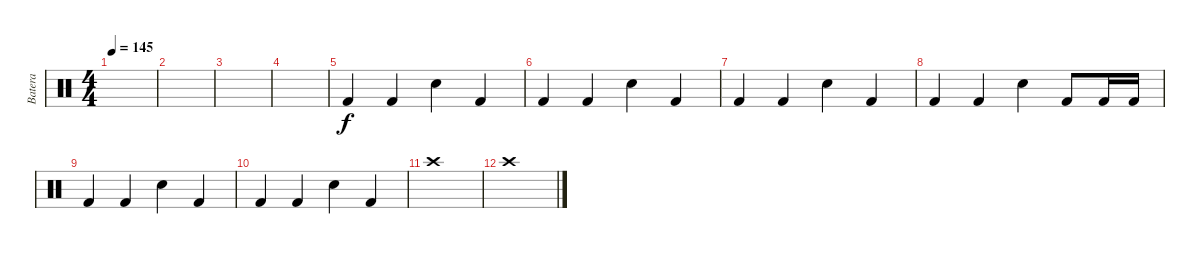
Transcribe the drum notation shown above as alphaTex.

\track ("Batera" "Batera") {instrument percussion}
\staff {score}
\articulation defaults
\ts (4 4)
\tempo 145
\clef neutral
\ks c
|
|
|
|
"Kick (hit) 2".4{dy f} "Kick (hit) 2".4 "Electric Snare (hit)".4 "Kick (hit) 2".4 |
"Kick (hit) 2".4 "Kick (hit) 2".4 "Electric Snare (hit)".4 "Kick (hit) 2".4 |
"Kick (hit) 2".4 "Kick (hit) 2".4 "Electric Snare (hit)".4 "Kick (hit) 2".4 |
"Kick (hit) 2".4 "Kick (hit) 2".4 "Electric Snare (hit)".4 "Kick (hit) 2".8 "Kick (hit) 2".16 "Kick (hit) 2".16 |
"Kick (hit) 2".4 "Kick (hit) 2".4 "Electric Snare (hit)".4 "Kick (hit) 2".4 |
"Kick (hit) 2".4 "Kick (hit) 2".4 "Electric Snare (hit)".4 "Kick (hit) 2".4 |
"Crash high (hit)".1 |
"Crash high (hit)".1
